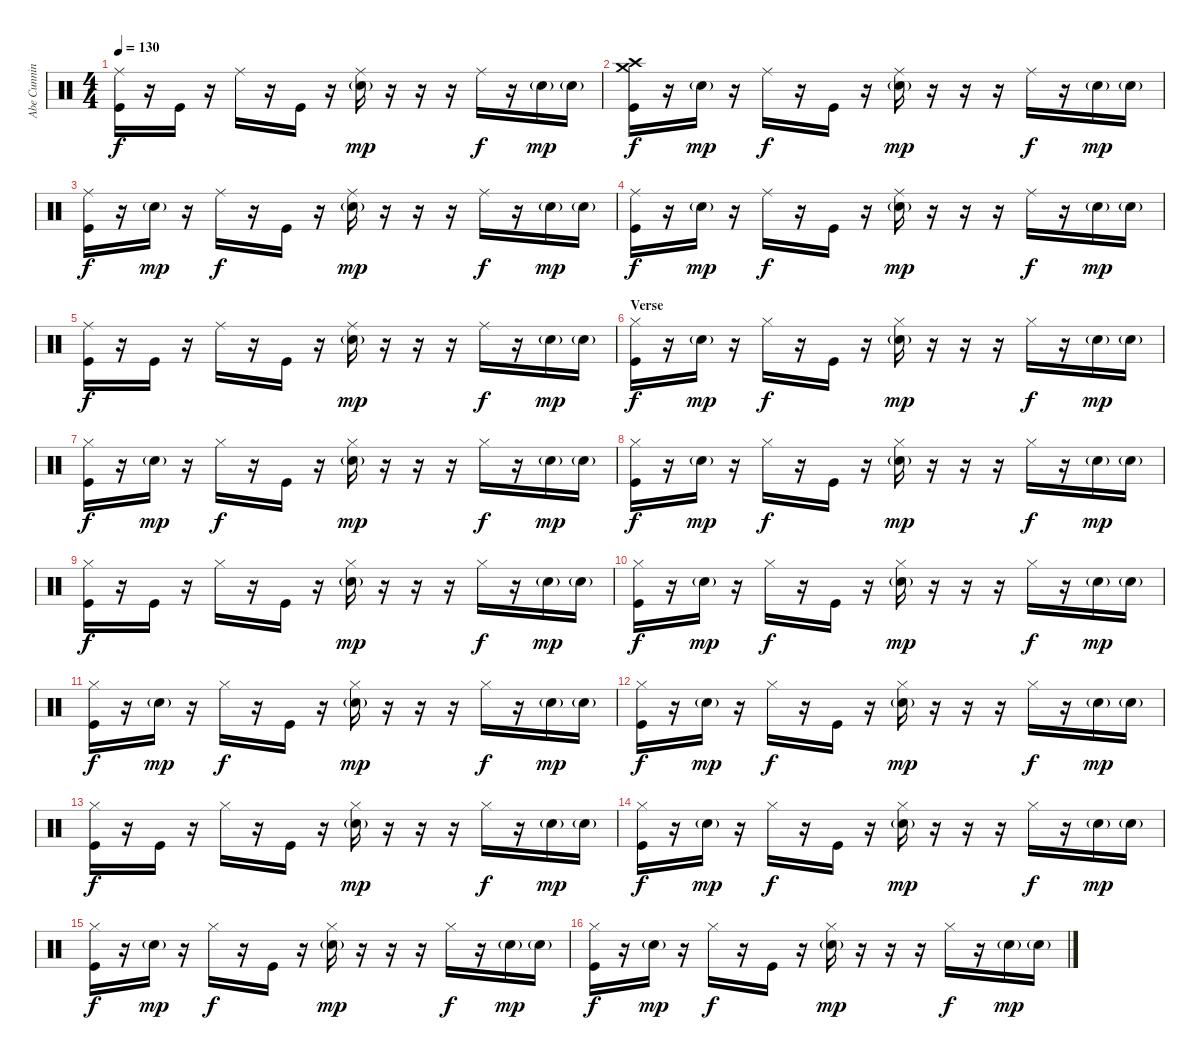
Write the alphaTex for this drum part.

\track ("Abe Cunningham" "Abe Cunnin") {instrument percussion}
\staff {score}
\articulation defaults
\ts (4 4)
\tempo 130
\clef neutral
\ks c
("Ride (middle)" "Kick (hit)").16{dy f} r.16 "Kick (hit)".16 r.16 "Ride (middle)".16 r.16 "Kick (hit)".16 r.16 ("Ride (middle)" "Electric Snare (hit)"{g}).16{dy mp} r.16 r.16 r.16 "Ride (middle)".16{dy f} r.16 "Electric Snare (hit)"{g}.16{dy mp} "Electric Snare (hit)"{g}.16 |
("Crash high (hit)" "Crash medium (hit)" "Kick (hit)").16{dy f} r.16 "Electric Snare (hit)"{g}.16{dy mp} r.16 "Ride (middle)".16{dy f} r.16 "Kick (hit)".16 r.16 ("Ride (middle)" "Electric Snare (hit)"{g}).16{dy mp} r.16 r.16 r.16 "Ride (middle)".16{dy f} r.16 "Electric Snare (hit)"{g}.16{dy mp} "Electric Snare (hit)"{g}.16 |
("Ride (middle)" "Kick (hit)").16{dy f} r.16 "Electric Snare (hit)"{g}.16{dy mp} r.16 "Ride (middle)".16{dy f} r.16 "Kick (hit)".16 r.16 ("Ride (middle)" "Electric Snare (hit)"{g}).16{dy mp} r.16 r.16 r.16 "Ride (middle)".16{dy f} r.16 "Electric Snare (hit)"{g}.16{dy mp} "Electric Snare (hit)"{g}.16 |
("Ride (middle)" "Kick (hit)").16{dy f} r.16 "Electric Snare (hit)"{g}.16{dy mp} r.16 "Ride (middle)".16{dy f} r.16 "Kick (hit)".16 r.16 ("Ride (middle)" "Electric Snare (hit)"{g}).16{dy mp} r.16 r.16 r.16 "Ride (middle)".16{dy f} r.16 "Electric Snare (hit)"{g}.16{dy mp} "Electric Snare (hit)"{g}.16 |
("Ride (middle)" "Kick (hit)").16{dy f} r.16 "Kick (hit)".16 r.16 "Ride (middle)".16 r.16 "Kick (hit)".16 r.16 ("Ride (middle)" "Electric Snare (hit)"{g}).16{dy mp} r.16 r.16 r.16 "Ride (middle)".16{dy f} r.16 "Electric Snare (hit)"{g}.16{dy mp} "Electric Snare (hit)"{g}.16 |
\section ("" "Verse")
("Hi-Hat (closed)" "Kick (hit)").16{dy f} r.16 "Electric Snare (hit)"{g}.16{dy mp} r.16 "Hi-Hat (closed)".16{dy f} r.16 "Kick (hit)".16 r.16 ("Hi-Hat (closed)" "Electric Snare (hit)"{g}).16{dy mp} r.16 r.16 r.16 "Hi-Hat (closed)".16{dy f} r.16 "Electric Snare (hit)"{g}.16{dy mp} "Electric Snare (hit)"{g}.16 |
("Hi-Hat (closed)" "Kick (hit)").16{dy f} r.16 "Electric Snare (hit)"{g}.16{dy mp} r.16 "Hi-Hat (closed)".16{dy f} r.16 "Kick (hit)".16 r.16 ("Hi-Hat (closed)" "Electric Snare (hit)"{g}).16{dy mp} r.16 r.16 r.16 "Hi-Hat (closed)".16{dy f} r.16 "Electric Snare (hit)"{g}.16{dy mp} "Electric Snare (hit)"{g}.16 |
("Hi-Hat (closed)" "Kick (hit)").16{dy f} r.16 "Electric Snare (hit)"{g}.16{dy mp} r.16 "Hi-Hat (closed)".16{dy f} r.16 "Kick (hit)".16 r.16 ("Hi-Hat (closed)" "Electric Snare (hit)"{g}).16{dy mp} r.16 r.16 r.16 "Hi-Hat (closed)".16{dy f} r.16 "Electric Snare (hit)"{g}.16{dy mp} "Electric Snare (hit)"{g}.16 |
("Hi-Hat (closed)" "Kick (hit)").16{dy f} r.16 "Kick (hit)".16 r.16 "Hi-Hat (closed)".16 r.16 "Kick (hit)".16 r.16 ("Hi-Hat (closed)" "Electric Snare (hit)"{g}).16{dy mp} r.16 r.16 r.16 "Hi-Hat (closed)".16{dy f} r.16 "Electric Snare (hit)"{g}.16{dy mp} "Electric Snare (hit)"{g}.16 |
("Hi-Hat (closed)" "Kick (hit)").16{dy f} r.16 "Electric Snare (hit)"{g}.16{dy mp} r.16 "Hi-Hat (closed)".16{dy f} r.16 "Kick (hit)".16 r.16 ("Hi-Hat (closed)" "Electric Snare (hit)"{g}).16{dy mp} r.16 r.16 r.16 "Hi-Hat (closed)".16{dy f} r.16 "Electric Snare (hit)"{g}.16{dy mp} "Electric Snare (hit)"{g}.16 |
("Hi-Hat (closed)" "Kick (hit)").16{dy f} r.16 "Electric Snare (hit)"{g}.16{dy mp} r.16 "Hi-Hat (closed)".16{dy f} r.16 "Kick (hit)".16 r.16 ("Hi-Hat (closed)" "Electric Snare (hit)"{g}).16{dy mp} r.16 r.16 r.16 "Hi-Hat (closed)".16{dy f} r.16 "Electric Snare (hit)"{g}.16{dy mp} "Electric Snare (hit)"{g}.16 |
("Hi-Hat (closed)" "Kick (hit)").16{dy f} r.16 "Electric Snare (hit)"{g}.16{dy mp} r.16 "Hi-Hat (closed)".16{dy f} r.16 "Kick (hit)".16 r.16 ("Hi-Hat (closed)" "Electric Snare (hit)"{g}).16{dy mp} r.16 r.16 r.16 "Hi-Hat (closed)".16{dy f} r.16 "Electric Snare (hit)"{g}.16{dy mp} "Electric Snare (hit)"{g}.16 |
("Hi-Hat (closed)" "Kick (hit)").16{dy f} r.16 "Kick (hit)".16 r.16 "Hi-Hat (closed)".16 r.16 "Kick (hit)".16 r.16 ("Hi-Hat (closed)" "Electric Snare (hit)"{g}).16{dy mp} r.16 r.16 r.16 "Hi-Hat (closed)".16{dy f} r.16 "Electric Snare (hit)"{g}.16{dy mp} "Electric Snare (hit)"{g}.16 |
("Hi-Hat (closed)" "Kick (hit)").16{dy f} r.16 "Electric Snare (hit)"{g}.16{dy mp} r.16 "Hi-Hat (closed)".16{dy f} r.16 "Kick (hit)".16 r.16 ("Hi-Hat (closed)" "Electric Snare (hit)"{g}).16{dy mp} r.16 r.16 r.16 "Hi-Hat (closed)".16{dy f} r.16 "Electric Snare (hit)"{g}.16{dy mp} "Electric Snare (hit)"{g}.16 |
("Hi-Hat (closed)" "Kick (hit)").16{dy f} r.16 "Electric Snare (hit)"{g}.16{dy mp} r.16 "Hi-Hat (closed)".16{dy f} r.16 "Kick (hit)".16 r.16 ("Hi-Hat (closed)" "Electric Snare (hit)"{g}).16{dy mp} r.16 r.16 r.16 "Hi-Hat (closed)".16{dy f} r.16 "Electric Snare (hit)"{g}.16{dy mp} "Electric Snare (hit)"{g}.16 |
("Hi-Hat (closed)" "Kick (hit)").16{dy f} r.16 "Electric Snare (hit)"{g}.16{dy mp} r.16 "Hi-Hat (closed)".16{dy f} r.16 "Kick (hit)".16 r.16 ("Hi-Hat (closed)" "Electric Snare (hit)"{g}).16{dy mp} r.16 r.16 r.16 "Hi-Hat (closed)".16{dy f} r.16 "Electric Snare (hit)"{g}.16{dy mp} "Electric Snare (hit)"{g}.16
